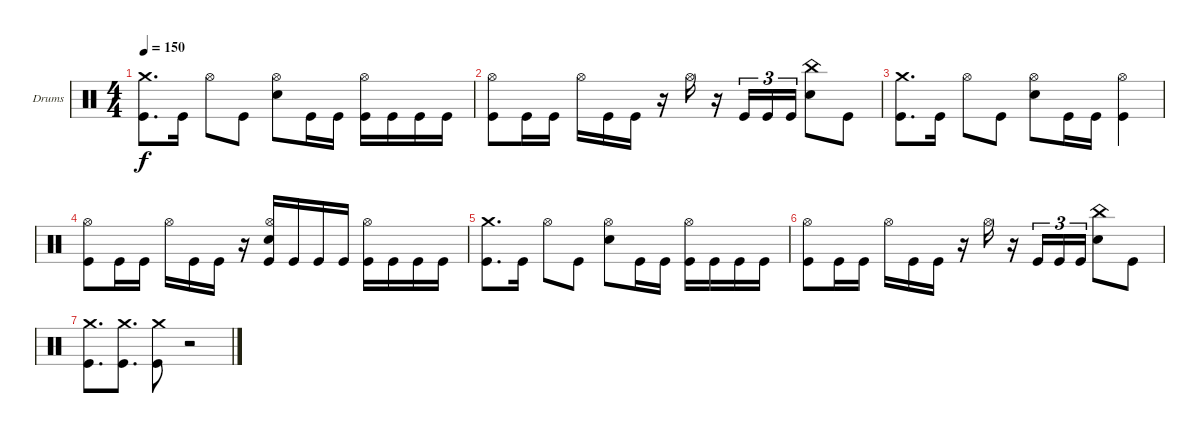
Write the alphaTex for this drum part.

\bracketExtendMode groupsimilarinstruments
\firstSystemTrackNameOrientation horizontal
\otherSystemsTrackNameOrientation horizontal
\track ("Drumkit" "Drums") {instrument percussion}
\staff {score}
\articulation defaults
\ts (4 4)
\tempo 150
\clef neutral
\ks c
("Crash medium (hit)" "Kick (hit)").8{d dy f} "Kick (hit)".16 "Hi-Hat (open)".8 "Kick (hit)".8 ("Hi-Hat (open)" "Snare (hit) 2").8 "Kick (hit)".16 "Kick (hit)".16 ("Hi-Hat (open)" "Kick (hit)").16 "Kick (hit)".16 "Kick (hit)".16 "Kick (hit)".16 |
("Hi-Hat (open)" "Kick (hit)").8 "Kick (hit)".16 "Kick (hit)".16 "Hi-Hat (open)".16 "Kick (hit)".16 "Kick (hit)".16 r.16 "Hi-Hat (open)".16 r.16 "Kick (hit)".16{tu (3 2)} "Kick (hit)".16{tu (3 2)} "Kick (hit)".16{tu (3 2)} ("China (hit)" "Snare (hit) 2").8 "Kick (hit)".8 |
("Crash medium (hit)" "Kick (hit)").8{d} "Kick (hit)".16 "Hi-Hat (open)".8 "Kick (hit)".8 ("Hi-Hat (open)" "Snare (hit) 2").8 "Kick (hit)".16 "Kick (hit)".16 ("Hi-Hat (open)" "Kick (hit)").4 |
("Hi-Hat (open)" "Kick (hit)").8 "Kick (hit)".16 "Kick (hit)".16 "Hi-Hat (open)".16 "Kick (hit)".16 "Kick (hit)".16 r.16 ("Hi-Hat (open)" "Snare (hit) 2" "Kick (hit)").16 "Kick (hit)".16 "Kick (hit)".16 "Kick (hit)".16 ("Hi-Hat (open)" "Kick (hit)").16 "Kick (hit)".16 "Kick (hit)".16 "Kick (hit)".16 |
("Crash medium (hit)" "Kick (hit)").8{d} "Kick (hit)".16 "Hi-Hat (open)".8 "Kick (hit)".8 ("Hi-Hat (open)" "Snare (hit) 2").8 "Kick (hit)".16 "Kick (hit)".16 ("Hi-Hat (open)" "Kick (hit)").16 "Kick (hit)".16 "Kick (hit)".16 "Kick (hit)".16 |
("Hi-Hat (open)" "Kick (hit)").8 "Kick (hit)".16 "Kick (hit)".16 "Hi-Hat (open)".16 "Kick (hit)".16 "Kick (hit)".16 r.16 "Hi-Hat (open)".16 r.16 "Kick (hit)".16{tu (3 2)} "Kick (hit)".16{tu (3 2)} "Kick (hit)".16{tu (3 2)} ("China (hit)" "Snare (hit) 2").8 "Kick (hit)".8 |
("Crash medium (hit)" "Kick (hit)").8{d} ("Crash medium (hit)" "Kick (hit)").8{d} ("Crash medium (hit)" "Kick (hit)").8 r.2
